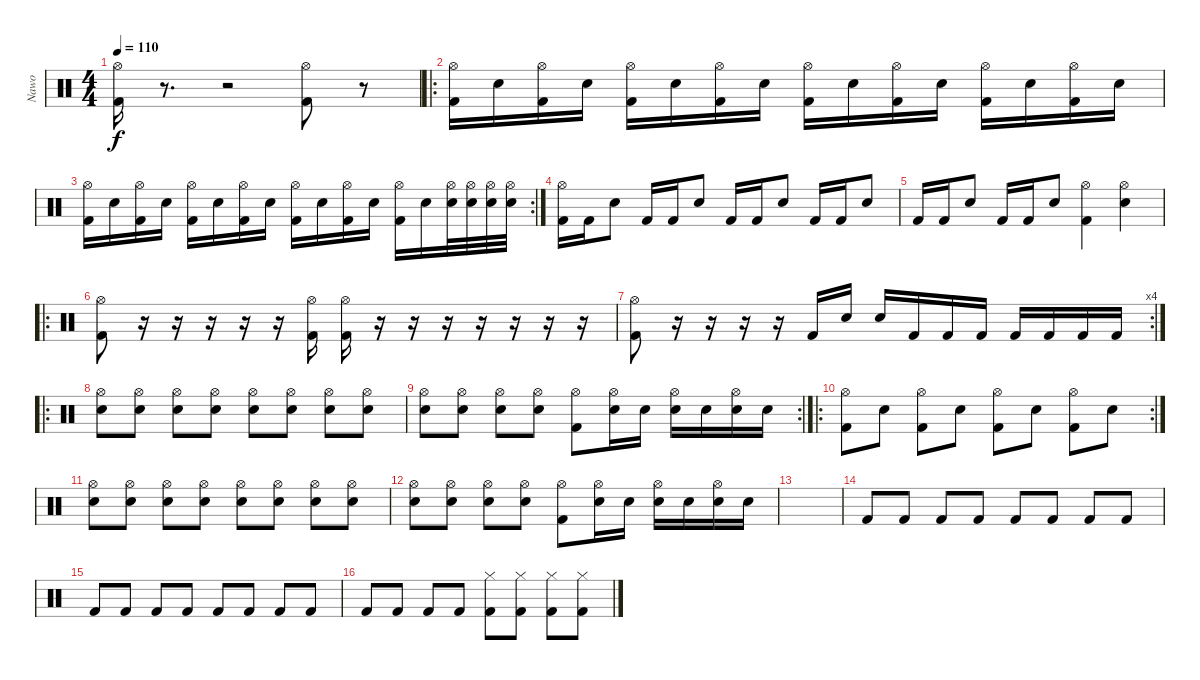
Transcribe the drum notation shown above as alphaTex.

\track ("Nawo" "Nawo") {instrument percussion}
\staff {score}
\articulation defaults
\ts (4 4)
\tempo 110
\clef neutral
\ks c
("Hi-Hat (open)" "Kick (hit) 2").16{dy f} r.8{d} r.2 ("Hi-Hat (open)" "Kick (hit) 2").8 r.8 |
\ro
("Hi-Hat (open)" "Kick (hit) 2").16 "Electric Snare (hit)".16 ("Hi-Hat (open)" "Kick (hit) 2").16 "Electric Snare (hit)".16 ("Hi-Hat (open)" "Kick (hit) 2").16 "Electric Snare (hit)".16 ("Hi-Hat (open)" "Kick (hit) 2").16 "Electric Snare (hit)".16 ("Hi-Hat (open)" "Kick (hit) 2").16 "Electric Snare (hit)".16 ("Hi-Hat (open)" "Kick (hit) 2").16 "Electric Snare (hit)".16 ("Hi-Hat (open)" "Kick (hit) 2").16 "Electric Snare (hit)".16 ("Hi-Hat (open)" "Kick (hit) 2").16 "Electric Snare (hit)".16 |
\rc 2
("Hi-Hat (open)" "Kick (hit) 2").16 "Electric Snare (hit)".16 ("Hi-Hat (open)" "Kick (hit) 2").16 "Electric Snare (hit)".16 ("Hi-Hat (open)" "Kick (hit) 2").16 "Electric Snare (hit)".16 ("Hi-Hat (open)" "Kick (hit) 2").16 "Electric Snare (hit)".16 ("Hi-Hat (open)" "Kick (hit) 2").16 "Electric Snare (hit)".16 ("Hi-Hat (open)" "Kick (hit) 2").16 "Electric Snare (hit)".16 ("Hi-Hat (open)" "Kick (hit) 2").16 "Electric Snare (hit)".16 ("Hi-Hat (open)" "Electric Snare (hit)").32 ("Hi-Hat (open)" "Electric Snare (hit)").32 ("Hi-Hat (open)" "Electric Snare (hit)").32 ("Hi-Hat (open)" "Electric Snare (hit)").32 |
("Hi-Hat (open)" "Kick (hit) 2").16 "Kick (hit) 2".16 "Electric Snare (hit)".8 "Kick (hit) 2".16 "Kick (hit) 2".16 "Electric Snare (hit)".8 "Kick (hit) 2".16 "Kick (hit) 2".16 "Electric Snare (hit)".8 "Kick (hit) 2".16 "Kick (hit) 2".16 "Electric Snare (hit)".8 |
"Kick (hit) 2".16 "Kick (hit) 2".16 "Electric Snare (hit)".8 "Kick (hit) 2".16 "Kick (hit) 2".16 "Electric Snare (hit)".8 ("Hi-Hat (open)" "Kick (hit) 2").4 ("Hi-Hat (open)" "Electric Snare (hit)").4 |
\ro
("Hi-Hat (open)" "Kick (hit) 2").8 r.16 r.16 r.16 r.16 r.16 ("Hi-Hat (open)" "Kick (hit) 2").16 ("Hi-Hat (open)" "Kick (hit) 2").16 r.16 r.16 r.16 r.16 r.16 r.16 r.16 |
\rc 4
("Hi-Hat (open)" "Kick (hit) 2").8 r.16 r.16 r.16 r.16 "Kick (hit) 2".16 "Electric Snare (hit)".16 "Electric Snare (hit)".16 "Kick (hit) 2".16 "Kick (hit) 2".16 "Kick (hit) 2".16 "Kick (hit) 2".16 "Kick (hit) 2".16 "Kick (hit) 2".16 "Kick (hit) 2".16 |
\ro
("Hi-Hat (open)" "Electric Snare (hit)").8 ("Hi-Hat (open)" "Electric Snare (hit)").8 ("Hi-Hat (open)" "Electric Snare (hit)").8 ("Hi-Hat (open)" "Electric Snare (hit)").8 ("Hi-Hat (open)" "Electric Snare (hit)").8 ("Hi-Hat (open)" "Electric Snare (hit)").8 ("Hi-Hat (open)" "Electric Snare (hit)").8 ("Hi-Hat (open)" "Electric Snare (hit)").8 |
\rc 2
("Hi-Hat (open)" "Electric Snare (hit)").8 ("Hi-Hat (open)" "Electric Snare (hit)").8 ("Hi-Hat (open)" "Electric Snare (hit)").8 ("Hi-Hat (open)" "Electric Snare (hit)").8 ("Hi-Hat (open)" "Kick (hit) 2").8 ("Hi-Hat (open)" "Electric Snare (hit)").16 "Electric Snare (hit)".16 ("Hi-Hat (open)" "Electric Snare (hit)").16 "Electric Snare (hit)".16 ("Hi-Hat (open)" "Electric Snare (hit)").16 "Electric Snare (hit)".16 |
\ro
\rc 2
("Hi-Hat (open)" "Kick (hit) 2").8 "Electric Snare (hit)".8 ("Hi-Hat (open)" "Kick (hit) 2").8 "Electric Snare (hit)".8 ("Hi-Hat (open)" "Kick (hit) 2").8 "Electric Snare (hit)".8 ("Hi-Hat (open)" "Kick (hit) 2").8 "Electric Snare (hit)".8 |
("Hi-Hat (open)" "Electric Snare (hit)").8 ("Hi-Hat (open)" "Electric Snare (hit)").8 ("Hi-Hat (open)" "Electric Snare (hit)").8 ("Hi-Hat (open)" "Electric Snare (hit)").8 ("Hi-Hat (open)" "Electric Snare (hit)").8 ("Hi-Hat (open)" "Electric Snare (hit)").8 ("Hi-Hat (open)" "Electric Snare (hit)").8 ("Hi-Hat (open)" "Electric Snare (hit)").8 |
("Hi-Hat (open)" "Electric Snare (hit)").8 ("Hi-Hat (open)" "Electric Snare (hit)").8 ("Hi-Hat (open)" "Electric Snare (hit)").8 ("Hi-Hat (open)" "Electric Snare (hit)").8 ("Hi-Hat (open)" "Kick (hit) 2").8 ("Hi-Hat (open)" "Electric Snare (hit)").16 "Electric Snare (hit)".16 ("Hi-Hat (open)" "Electric Snare (hit)").16 "Electric Snare (hit)".16 ("Hi-Hat (open)" "Electric Snare (hit)").16 "Electric Snare (hit)".16 |
|
"Kick (hit) 2".8 "Kick (hit) 2".8 "Kick (hit) 2".8 "Kick (hit) 2".8 "Kick (hit) 2".8 "Kick (hit) 2".8 "Kick (hit) 2".8 "Kick (hit) 2".8 |
"Kick (hit) 2".8 "Kick (hit) 2".8 "Kick (hit) 2".8 "Kick (hit) 2".8 "Kick (hit) 2".8 "Kick (hit) 2".8 "Kick (hit) 2".8 "Kick (hit) 2".8 |
"Kick (hit) 2".8 "Kick (hit) 2".8 "Kick (hit) 2".8 "Kick (hit) 2".8 ("Hi-Hat (closed)" "Kick (hit) 2").8 ("Hi-Hat (closed)" "Kick (hit) 2").8 ("Hi-Hat (closed)" "Kick (hit) 2").8 ("Hi-Hat (closed)" "Kick (hit) 2").8
